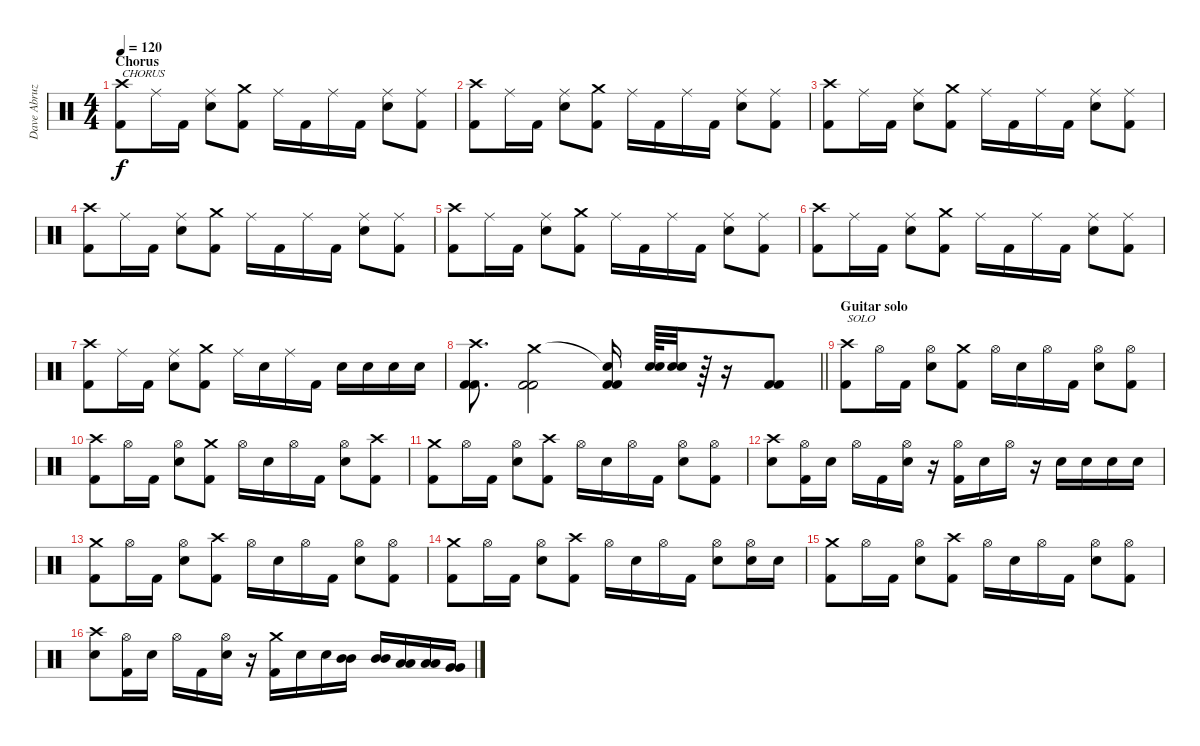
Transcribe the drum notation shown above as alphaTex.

\track ("Dave Abruzzesse" "Dave Abruz") {instrument percussion}
\staff {score}
\articulation defaults
\ts (4 4)
\section ("" "Chorus")
\tempo 120
\clef neutral
\ks c
("Crash high (hit)" "Kick (hit) 2").8{txt "CHORUS" dy f} "Ride (middle)".16 "Kick (hit) 2".16 ("Ride (middle)" "Electric Snare (hit)").8 ("Crash medium (hit)" "Kick (hit) 2").8 "Ride (middle)".16 "Kick (hit) 2".16 "Ride (middle)".16 "Kick (hit) 2".16 ("Ride (middle)" "Electric Snare (hit)").8 ("Ride (middle)" "Kick (hit) 2").8 |
("Crash high (hit)" "Kick (hit) 2").8 "Ride (middle)".16 "Kick (hit) 2".16 ("Ride (middle)" "Electric Snare (hit)").8 ("Crash medium (hit)" "Kick (hit) 2").8 "Ride (middle)".16 "Kick (hit) 2".16 "Ride (middle)".16 "Kick (hit) 2".16 ("Ride (middle)" "Electric Snare (hit)").8 ("Ride (middle)" "Kick (hit) 2").8 |
("Crash high (hit)" "Kick (hit) 2").8 "Ride (middle)".16 "Kick (hit) 2".16 ("Ride (middle)" "Electric Snare (hit)").8 ("Crash medium (hit)" "Kick (hit) 2").8 "Ride (middle)".16 "Kick (hit) 2".16 "Ride (middle)".16 "Kick (hit) 2".16 ("Ride (middle)" "Electric Snare (hit)").8 ("Ride (middle)" "Kick (hit) 2").8 |
("Crash high (hit)" "Kick (hit) 2").8 "Ride (middle)".16 "Kick (hit) 2".16 ("Ride (middle)" "Electric Snare (hit)").8 ("Crash medium (hit)" "Kick (hit) 2").8 "Ride (middle)".16 "Kick (hit) 2".16 "Ride (middle)".16 "Kick (hit) 2".16 ("Ride (middle)" "Electric Snare (hit)").8 ("Ride (middle)" "Kick (hit) 2").8 |
("Crash high (hit)" "Kick (hit) 2").8 "Ride (middle)".16 "Kick (hit) 2".16 ("Ride (middle)" "Electric Snare (hit)").8 ("Crash medium (hit)" "Kick (hit) 2").8 "Ride (middle)".16 "Kick (hit) 2".16 "Ride (middle)".16 "Kick (hit) 2".16 ("Ride (middle)" "Electric Snare (hit)").8 ("Ride (middle)" "Kick (hit) 2").8 |
("Crash high (hit)" "Kick (hit) 2").8 "Ride (middle)".16 "Kick (hit) 2".16 ("Ride (middle)" "Electric Snare (hit)").8 ("Crash medium (hit)" "Kick (hit) 2").8 "Ride (middle)".16 "Kick (hit) 2".16 "Ride (middle)".16 "Kick (hit) 2".16 ("Ride (middle)" "Electric Snare (hit)").8 ("Ride (middle)" "Kick (hit) 2").8 |
("Crash high (hit)" "Kick (hit) 2").8 "Ride (middle)".16 "Kick (hit) 2".16 ("Ride (middle)" "Electric Snare (hit)").8 ("Crash medium (hit)" "Kick (hit) 2").8 "Ride (middle)".16 "Electric Snare (hit)".16 "Ride (middle)".16 "Kick (hit) 2".16 "Electric Snare (hit)".16 "Electric Snare (hit)".16 "Electric Snare (hit)".16 "Electric Snare (hit)".16 |
\barLineRight lightlight
("Crash high (hit)" "Kick (hit) 2" "Kick (hit) 2").8{d} ("Crash medium (hit)" "Kick (hit) 2" "Kick (hit) 2").2 ("Snare (hit)"{t} "Kick (hit) 2" "Kick (hit) 2").16 ("Electric Snare (hit)" "Electric Snare (hit)").64 ("Electric Snare (hit)" "Electric Snare (hit)").32 r.64 r.16 ("Kick (hit) 2" "Kick (hit) 2").8 |
\section ("" "Guitar solo")
("Crash high (hit)" "Kick (hit) 2").8{txt "SOLO"} "Hi-Hat (open)".16 "Kick (hit) 2".16 ("Hi-Hat (open)" "Electric Snare (hit)").8 ("Crash medium (hit)" "Kick (hit) 2").8 "Hi-Hat (open)".16 "Electric Snare (hit)".16 "Hi-Hat (open)".16 "Kick (hit) 2".16 ("Hi-Hat (open)" "Electric Snare (hit)").8 ("Hi-Hat (open)" "Kick (hit) 2").8 |
("Crash high (hit)" "Kick (hit) 2").8 "Hi-Hat (open)".16 "Kick (hit) 2".16 ("Hi-Hat (open)" "Electric Snare (hit)").8 ("Crash medium (hit)" "Kick (hit) 2").8 "Hi-Hat (open)".16 "Electric Snare (hit)".16 "Hi-Hat (open)".16 "Kick (hit) 2".16 ("Hi-Hat (open)" "Electric Snare (hit)").8 ("Crash high (hit)" "Kick (hit) 2").8 |
("Crash medium (hit)" "Kick (hit) 2").8 "Hi-Hat (open)".16 "Kick (hit) 2".16 ("Hi-Hat (open)" "Electric Snare (hit)").8 ("Crash high (hit)" "Kick (hit) 2").8 "Hi-Hat (open)".16 "Electric Snare (hit)".16 "Hi-Hat (open)".16 "Kick (hit) 2".16 ("Hi-Hat (open)" "Electric Snare (hit)").8 ("Hi-Hat (open)" "Kick (hit) 2").8 |
("Crash high (hit)" "Electric Snare (hit)").8 ("Hi-Hat (open)" "Kick (hit) 2").16 "Electric Snare (hit)".16 "Hi-Hat (open)".16 "Kick (hit) 2".16 ("Hi-Hat (open)" "Electric Snare (hit)").16 r.16 ("Hi-Hat (open)" "Kick (hit) 2").16 "Electric Snare (hit)".16 "Hi-Hat (open)".16 r.16 "Electric Snare (hit)".16 "Electric Snare (hit)".16 "Electric Snare (hit)".16 "Electric Snare (hit)".16 |
("Crash medium (hit)" "Kick (hit) 2").8 "Hi-Hat (open)".16 "Kick (hit) 2".16 ("Hi-Hat (open)" "Electric Snare (hit)").8 ("Crash high (hit)" "Kick (hit) 2").8 "Hi-Hat (open)".16 "Electric Snare (hit)".16 "Hi-Hat (open)".16 "Kick (hit) 2".16 ("Hi-Hat (open)" "Electric Snare (hit)").8 ("Hi-Hat (open)" "Kick (hit) 2").8 |
("Crash medium (hit)" "Kick (hit) 2").8 "Hi-Hat (open)".16 "Kick (hit) 2".16 ("Hi-Hat (open)" "Electric Snare (hit)").8 ("Crash high (hit)" "Kick (hit) 2").8 "Hi-Hat (open)".16 "Electric Snare (hit)".16 "Hi-Hat (open)".16 "Kick (hit) 2".16 ("Hi-Hat (open)" "Electric Snare (hit)").8 ("Hi-Hat (open)" "Electric Snare (hit)").16 "Electric Snare (hit)".16 |
("Crash medium (hit)" "Kick (hit) 2").8 "Hi-Hat (open)".16 "Kick (hit) 2".16 ("Hi-Hat (open)" "Electric Snare (hit)").8 ("Crash high (hit)" "Kick (hit) 2").8 "Hi-Hat (open)".16 "Electric Snare (hit)".16 "Hi-Hat (open)".16 "Kick (hit) 2".16 ("Hi-Hat (open)" "Electric Snare (hit)").8 ("Hi-Hat (open)" "Kick (hit) 2").8 |
("Crash high (hit)" "Electric Snare (hit)").8 ("Hi-Hat (open)" "Kick (hit) 2").16 "Electric Snare (hit)".16 "Hi-Hat (open)".16 "Kick (hit) 2".16 ("Hi-Hat (open)" "Electric Snare (hit)").16 r.16 ("Crash medium (hit)" "Kick (hit) 2").16 "Electric Snare (hit)".16 "Electric Snare (hit)".16 ("Mid Tom (hit)" "Mid Tom (hit)").16 ("Mid Tom (hit)" "Mid Tom (hit)").16 ("Low Tom (hit)" "Low Tom (hit)").16 ("Low Tom (hit)" "Low Tom (hit)").16 ("Very Low Tom (hit)" "Very Low Tom (hit)").16
